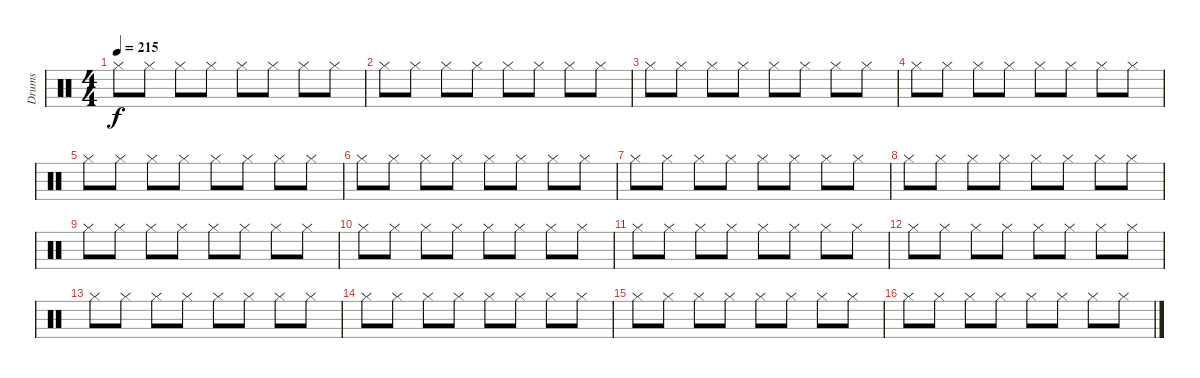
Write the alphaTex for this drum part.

\track ("Drums" "Drums") {instrument percussion}
\staff {score}
\articulation defaults
\ts (4 4)
\tempo 215
\clef neutral
\ks c "Hi-Hat (closed)".8{dy f} "Hi-Hat (closed)".8 "Hi-Hat (closed)".8 "Hi-Hat (closed)".8 "Hi-Hat (closed)".8 "Hi-Hat (closed)".8 "Hi-Hat (closed)".8 "Hi-Hat (closed)".8
|
"Hi-Hat (closed)".8 "Hi-Hat (closed)".8 "Hi-Hat (closed)".8 "Hi-Hat (closed)".8 "Hi-Hat (closed)".8 "Hi-Hat (closed)".8 "Hi-Hat (closed)".8 "Hi-Hat (closed)".8 |
"Hi-Hat (closed)".8 "Hi-Hat (closed)".8 "Hi-Hat (closed)".8 "Hi-Hat (closed)".8 "Hi-Hat (closed)".8 "Hi-Hat (closed)".8 "Hi-Hat (closed)".8 "Hi-Hat (closed)".8 |
"Hi-Hat (closed)".8 "Hi-Hat (closed)".8 "Hi-Hat (closed)".8 "Hi-Hat (closed)".8 "Hi-Hat (closed)".8 "Hi-Hat (closed)".8 "Hi-Hat (closed)".8 "Hi-Hat (closed)".8 |
"Hi-Hat (closed)".8 "Hi-Hat (closed)".8 "Hi-Hat (closed)".8 "Hi-Hat (closed)".8 "Hi-Hat (closed)".8 "Hi-Hat (closed)".8 "Hi-Hat (closed)".8 "Hi-Hat (closed)".8 |
"Hi-Hat (closed)".8 "Hi-Hat (closed)".8 "Hi-Hat (closed)".8 "Hi-Hat (closed)".8 "Hi-Hat (closed)".8 "Hi-Hat (closed)".8 "Hi-Hat (closed)".8 "Hi-Hat (closed)".8 |
"Hi-Hat (closed)".8 "Hi-Hat (closed)".8 "Hi-Hat (closed)".8 "Hi-Hat (closed)".8 "Hi-Hat (closed)".8 "Hi-Hat (closed)".8 "Hi-Hat (closed)".8 "Hi-Hat (closed)".8 |
"Hi-Hat (closed)".8 "Hi-Hat (closed)".8 "Hi-Hat (closed)".8 "Hi-Hat (closed)".8 "Hi-Hat (closed)".8 "Hi-Hat (closed)".8 "Hi-Hat (closed)".8 "Hi-Hat (closed)".8 |
"Hi-Hat (closed)".8 "Hi-Hat (closed)".8 "Hi-Hat (closed)".8 "Hi-Hat (closed)".8 "Hi-Hat (closed)".8 "Hi-Hat (closed)".8 "Hi-Hat (closed)".8 "Hi-Hat (closed)".8 |
"Hi-Hat (closed)".8 "Hi-Hat (closed)".8 "Hi-Hat (closed)".8 "Hi-Hat (closed)".8 "Hi-Hat (closed)".8 "Hi-Hat (closed)".8 "Hi-Hat (closed)".8 "Hi-Hat (closed)".8 |
"Hi-Hat (closed)".8 "Hi-Hat (closed)".8 "Hi-Hat (closed)".8 "Hi-Hat (closed)".8 "Hi-Hat (closed)".8 "Hi-Hat (closed)".8 "Hi-Hat (closed)".8 "Hi-Hat (closed)".8 |
"Hi-Hat (closed)".8 "Hi-Hat (closed)".8 "Hi-Hat (closed)".8 "Hi-Hat (closed)".8 "Hi-Hat (closed)".8 "Hi-Hat (closed)".8 "Hi-Hat (closed)".8 "Hi-Hat (closed)".8 |
"Hi-Hat (closed)".8 "Hi-Hat (closed)".8 "Hi-Hat (closed)".8 "Hi-Hat (closed)".8 "Hi-Hat (closed)".8 "Hi-Hat (closed)".8 "Hi-Hat (closed)".8 "Hi-Hat (closed)".8 |
"Hi-Hat (closed)".8 "Hi-Hat (closed)".8 "Hi-Hat (closed)".8 "Hi-Hat (closed)".8 "Hi-Hat (closed)".8 "Hi-Hat (closed)".8 "Hi-Hat (closed)".8 "Hi-Hat (closed)".8 |
"Hi-Hat (closed)".8 "Hi-Hat (closed)".8 "Hi-Hat (closed)".8 "Hi-Hat (closed)".8 "Hi-Hat (closed)".8 "Hi-Hat (closed)".8 "Hi-Hat (closed)".8 "Hi-Hat (closed)".8 |
"Hi-Hat (closed)".8 "Hi-Hat (closed)".8 "Hi-Hat (closed)".8 "Hi-Hat (closed)".8 "Hi-Hat (closed)".8 "Hi-Hat (closed)".8 "Hi-Hat (closed)".8 "Hi-Hat (closed)".8
